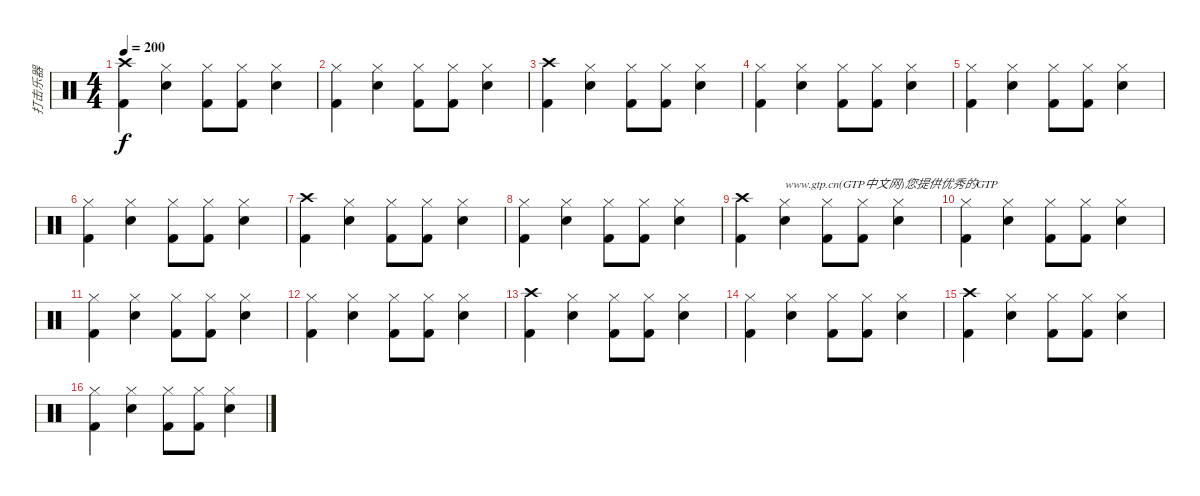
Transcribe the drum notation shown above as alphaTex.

\track ("打击乐器" "打击乐器") {instrument percussion}
\staff {score}
\articulation defaults
\ts (4 4)
\tempo 200
\clef neutral
\ks c
("Crash high (hit)" "Kick (hit) 2").4{dy f} ("Hi-Hat (closed)" "Snare (hit) 2").4 ("Hi-Hat (closed)" "Kick (hit) 2").8 ("Hi-Hat (closed)" "Kick (hit) 2").8 ("Hi-Hat (closed)" "Snare (hit) 2").4 |
("Hi-Hat (closed)" "Kick (hit) 2").4 ("Hi-Hat (closed)" "Snare (hit) 2").4 ("Hi-Hat (closed)" "Kick (hit) 2").8 ("Hi-Hat (closed)" "Kick (hit) 2").8 ("Hi-Hat (closed)" "Snare (hit) 2").4 |
("Crash high (hit)" "Kick (hit) 2").4 ("Hi-Hat (closed)" "Snare (hit) 2").4 ("Hi-Hat (closed)" "Kick (hit) 2").8 ("Hi-Hat (closed)" "Kick (hit) 2").8 ("Hi-Hat (closed)" "Snare (hit) 2").4 |
("Hi-Hat (closed)" "Kick (hit) 2").4 ("Hi-Hat (closed)" "Snare (hit) 2").4 ("Hi-Hat (closed)" "Kick (hit) 2").8 ("Hi-Hat (closed)" "Kick (hit) 2").8 ("Hi-Hat (closed)" "Snare (hit) 2").4 |
("Hi-Hat (closed)" "Kick (hit) 2").4 ("Hi-Hat (closed)" "Snare (hit) 2").4 ("Hi-Hat (closed)" "Kick (hit) 2").8 ("Hi-Hat (closed)" "Kick (hit) 2").8 ("Hi-Hat (closed)" "Snare (hit) 2").4 |
("Hi-Hat (closed)" "Kick (hit) 2").4 ("Hi-Hat (closed)" "Snare (hit) 2").4 ("Hi-Hat (closed)" "Kick (hit) 2").8 ("Hi-Hat (closed)" "Kick (hit) 2").8 ("Hi-Hat (closed)" "Snare (hit) 2").4 |
("Crash high (hit)" "Kick (hit) 2").4 ("Hi-Hat (closed)" "Snare (hit) 2").4 ("Hi-Hat (closed)" "Kick (hit) 2").8 ("Hi-Hat (closed)" "Kick (hit) 2").8 ("Hi-Hat (closed)" "Snare (hit) 2").4 |
("Hi-Hat (closed)" "Kick (hit) 2").4 ("Hi-Hat (closed)" "Snare (hit) 2").4 ("Hi-Hat (closed)" "Kick (hit) 2").8 ("Hi-Hat (closed)" "Kick (hit) 2").8 ("Hi-Hat (closed)" "Snare (hit) 2").4 |
("Crash high (hit)" "Kick (hit) 2").4 ("Hi-Hat (closed)" "Snare (hit) 2").4{txt "www.gtp.cn(GTP中文网)您提供优秀的GTP"} ("Hi-Hat (closed)" "Kick (hit) 2").8 ("Hi-Hat (closed)" "Kick (hit) 2").8 ("Hi-Hat (closed)" "Snare (hit) 2").4 |
("Hi-Hat (closed)" "Kick (hit) 2").4 ("Hi-Hat (closed)" "Snare (hit) 2").4 ("Hi-Hat (closed)" "Kick (hit) 2").8 ("Hi-Hat (closed)" "Kick (hit) 2").8 ("Hi-Hat (closed)" "Snare (hit) 2").4 |
("Hi-Hat (closed)" "Kick (hit) 2").4 ("Hi-Hat (closed)" "Snare (hit) 2").4 ("Hi-Hat (closed)" "Kick (hit) 2").8 ("Hi-Hat (closed)" "Kick (hit) 2").8 ("Hi-Hat (closed)" "Snare (hit) 2").4 |
("Hi-Hat (closed)" "Kick (hit) 2").4 ("Hi-Hat (closed)" "Snare (hit) 2").4 ("Hi-Hat (closed)" "Kick (hit) 2").8 ("Hi-Hat (closed)" "Kick (hit) 2").8 ("Hi-Hat (closed)" "Snare (hit) 2").4 |
("Crash high (hit)" "Kick (hit) 2").4 ("Hi-Hat (closed)" "Snare (hit) 2").4 ("Hi-Hat (closed)" "Kick (hit) 2").8 ("Hi-Hat (closed)" "Kick (hit) 2").8 ("Hi-Hat (closed)" "Snare (hit) 2").4 |
("Hi-Hat (closed)" "Kick (hit) 2").4 ("Hi-Hat (closed)" "Snare (hit) 2").4 ("Hi-Hat (closed)" "Kick (hit) 2").8 ("Hi-Hat (closed)" "Kick (hit) 2").8 ("Hi-Hat (closed)" "Snare (hit) 2").4 |
("Crash high (hit)" "Kick (hit) 2").4 ("Hi-Hat (closed)" "Snare (hit) 2").4 ("Hi-Hat (closed)" "Kick (hit) 2").8 ("Hi-Hat (closed)" "Kick (hit) 2").8 ("Hi-Hat (closed)" "Snare (hit) 2").4 |
("Hi-Hat (closed)" "Kick (hit) 2").4 ("Hi-Hat (closed)" "Snare (hit) 2").4 ("Hi-Hat (closed)" "Kick (hit) 2").8 ("Hi-Hat (closed)" "Kick (hit) 2").8 ("Hi-Hat (closed)" "Snare (hit) 2").4
